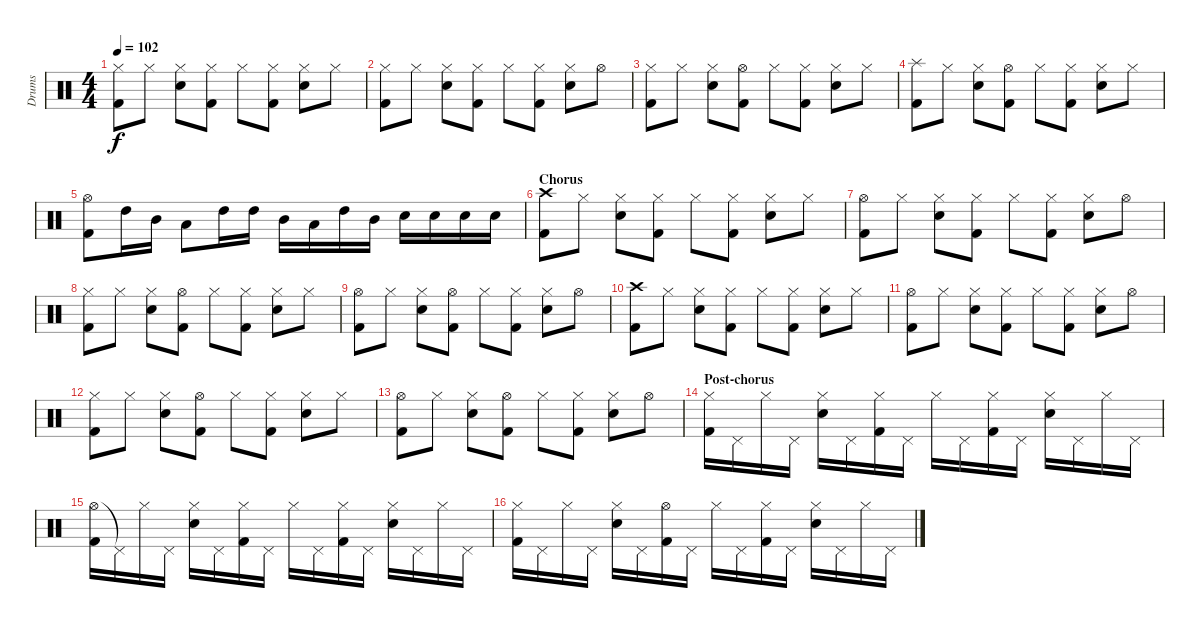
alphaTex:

\track ("Drums" "Drums") {instrument percussion}
\staff {score}
\articulation defaults
\ts (4 4)
\tempo 102
\clef neutral
\ks c
("Hi-Hat (closed)" "Kick (hit) 2").8{dy f} "Hi-Hat (closed)".8 ("Hi-Hat (closed)" "Electric Snare (hit)").8 ("Hi-Hat (closed)" "Kick (hit) 2").8 "Hi-Hat (closed)".8 ("Hi-Hat (closed)" "Kick (hit) 2").8 ("Hi-Hat (closed)" "Electric Snare (hit)").8 "Hi-Hat (closed)".8 |
("Hi-Hat (closed)" "Kick (hit) 2").8 "Hi-Hat (closed)".8 ("Hi-Hat (closed)" "Electric Snare (hit)").8 ("Hi-Hat (closed)" "Kick (hit) 2").8 "Hi-Hat (closed)".8 ("Hi-Hat (closed)" "Kick (hit) 2").8 ("Hi-Hat (closed)" "Electric Snare (hit)").8 "Hi-Hat (open)".8 |
("Hi-Hat (closed)" "Kick (hit) 2").8 "Hi-Hat (closed)".8 ("Hi-Hat (closed)" "Electric Snare (hit)").8 ("Hi-Hat (open)" "Kick (hit) 2").8 "Hi-Hat (closed)".8 ("Hi-Hat (closed)" "Kick (hit) 2").8 ("Hi-Hat (closed)" "Electric Snare (hit)").8 "Hi-Hat (closed)".8 |
("Splash (hit)" "Kick (hit) 2").8 "Hi-Hat (closed)".8 ("Hi-Hat (closed)" "Electric Snare (hit)").8 ("Hi-Hat (open)" "Kick (hit) 2").8 "Hi-Hat (closed)".8 ("Hi-Hat (closed)" "Kick (hit) 2").8 ("Hi-Hat (closed)" "Electric Snare (hit)").8 "Hi-Hat (closed)".8 |
("Hi-Hat (open)" "Kick (hit) 2").8 "High Tom (hit)".16 "Mid Tom (hit)".16 "Low Tom (hit)".8 "High Tom (hit)".16 "High Tom (hit)".16 "Mid Tom (hit)".16 "Low Tom (hit)".16 "High Tom (hit)".16 "Mid Tom (hit)".16 "Electric Snare (hit)".16 "Electric Snare (hit)".16 "Electric Snare (hit)".16 "Electric Snare (hit)".16 |
\section ("" "Chorus")
("Crash high (hit)" "Kick (hit) 2").8 "Hi-Hat (closed)".8 ("Hi-Hat (closed)" "Electric Snare (hit)").8 ("Hi-Hat (closed)" "Kick (hit) 2").8 "Hi-Hat (closed)".8 ("Hi-Hat (closed)" "Kick (hit) 2").8 ("Hi-Hat (closed)" "Electric Snare (hit)").8 "Hi-Hat (closed)".8 |
("Hi-Hat (open)" "Kick (hit) 2").8 "Hi-Hat (closed)".8 ("Hi-Hat (closed)" "Electric Snare (hit)").8 ("Hi-Hat (closed)" "Kick (hit) 2").8 "Hi-Hat (closed)".8 ("Hi-Hat (closed)" "Kick (hit) 2").8 ("Hi-Hat (closed)" "Electric Snare (hit)").8 "Hi-Hat (open)".8 |
("Hi-Hat (closed)" "Kick (hit) 2").8 "Hi-Hat (closed)".8 ("Hi-Hat (closed)" "Electric Snare (hit)").8 ("Hi-Hat (open)" "Kick (hit) 2").8 "Hi-Hat (closed)".8 ("Hi-Hat (closed)" "Kick (hit) 2").8 ("Hi-Hat (closed)" "Electric Snare (hit)").8 "Hi-Hat (closed)".8 |
("Hi-Hat (open)" "Kick (hit) 2").8 "Hi-Hat (closed)".8 ("Hi-Hat (closed)" "Electric Snare (hit)").8 ("Hi-Hat (open)" "Kick (hit) 2").8 "Hi-Hat (closed)".8 ("Hi-Hat (closed)" "Kick (hit) 2").8 ("Hi-Hat (closed)" "Electric Snare (hit)").8 "Hi-Hat (open)".8 |
("Crash high (hit)" "Kick (hit) 2").8 "Hi-Hat (closed)".8 ("Hi-Hat (closed)" "Electric Snare (hit)").8 ("Hi-Hat (closed)" "Kick (hit) 2").8 "Hi-Hat (closed)".8 ("Hi-Hat (closed)" "Kick (hit) 2").8 ("Hi-Hat (closed)" "Electric Snare (hit)").8 "Hi-Hat (closed)".8 |
("Hi-Hat (open)" "Kick (hit) 2").8 "Hi-Hat (closed)".8 ("Hi-Hat (closed)" "Electric Snare (hit)").8 ("Hi-Hat (closed)" "Kick (hit) 2").8 "Hi-Hat (closed)".8 ("Hi-Hat (closed)" "Kick (hit) 2").8 ("Hi-Hat (closed)" "Electric Snare (hit)").8 "Hi-Hat (open)".8 |
("Hi-Hat (closed)" "Kick (hit) 2").8 "Hi-Hat (closed)".8 ("Hi-Hat (closed)" "Electric Snare (hit)").8 ("Hi-Hat (open)" "Kick (hit) 2").8 "Hi-Hat (closed)".8 ("Hi-Hat (closed)" "Kick (hit) 2").8 ("Hi-Hat (closed)" "Electric Snare (hit)").8 "Hi-Hat (closed)".8 |
("Hi-Hat (open)" "Kick (hit) 2").8 "Hi-Hat (closed)".8 ("Hi-Hat (closed)" "Electric Snare (hit)").8 ("Hi-Hat (open)" "Kick (hit) 2").8 "Hi-Hat (closed)".8 ("Hi-Hat (closed)" "Kick (hit) 2").8 ("Hi-Hat (closed)" "Electric Snare (hit)").8 "Hi-Hat (open)".8 |
\section ("" "Post-chorus")
("Hi-Hat (closed)" "Kick (hit) 2").16 "Pedal Hi-Hat (hit)".16 "Hi-Hat (closed)".16 "Pedal Hi-Hat (hit)".16 ("Hi-Hat (closed)" "Electric Snare (hit)").16 "Pedal Hi-Hat (hit)".16 ("Hi-Hat (closed)" "Kick (hit) 2").16 "Pedal Hi-Hat (hit)".16 "Hi-Hat (closed)".16 "Pedal Hi-Hat (hit)".16 ("Hi-Hat (closed)" "Kick (hit) 2").16 "Pedal Hi-Hat (hit)".16 ("Hi-Hat (closed)" "Electric Snare (hit)").16 "Pedal Hi-Hat (hit)".16 "Hi-Hat (closed)".16 "Pedal Hi-Hat (hit)".16 |
("Hi-Hat (open)" "Kick (hit) 2").16 "Pedal Hi-Hat (hit)"{t}.16 "Hi-Hat (closed)".16 "Pedal Hi-Hat (hit)".16 ("Hi-Hat (closed)" "Electric Snare (hit)").16 "Pedal Hi-Hat (hit)".16 ("Hi-Hat (closed)" "Kick (hit) 2").16 "Pedal Hi-Hat (hit)".16 "Hi-Hat (closed)".16 "Pedal Hi-Hat (hit)".16 ("Hi-Hat (closed)" "Kick (hit) 2").16 "Pedal Hi-Hat (hit)".16 ("Hi-Hat (closed)" "Electric Snare (hit)").16 "Pedal Hi-Hat (hit)".16 "Hi-Hat (closed)".16 "Pedal Hi-Hat (hit)".16 |
("Hi-Hat (closed)" "Kick (hit) 2").16 "Pedal Hi-Hat (hit)".16 "Hi-Hat (closed)".16 "Pedal Hi-Hat (hit)".16 ("Hi-Hat (closed)" "Electric Snare (hit)").16 "Pedal Hi-Hat (hit)".16 ("Hi-Hat (open)" "Kick (hit) 2").16 "Pedal Hi-Hat (hit)".16 "Hi-Hat (closed)".16 "Pedal Hi-Hat (hit)".16 ("Hi-Hat (closed)" "Kick (hit) 2").16 "Pedal Hi-Hat (hit)".16 ("Hi-Hat (closed)" "Electric Snare (hit)").16 "Pedal Hi-Hat (hit)".16 "Hi-Hat (closed)".16 "Pedal Hi-Hat (hit)".16
